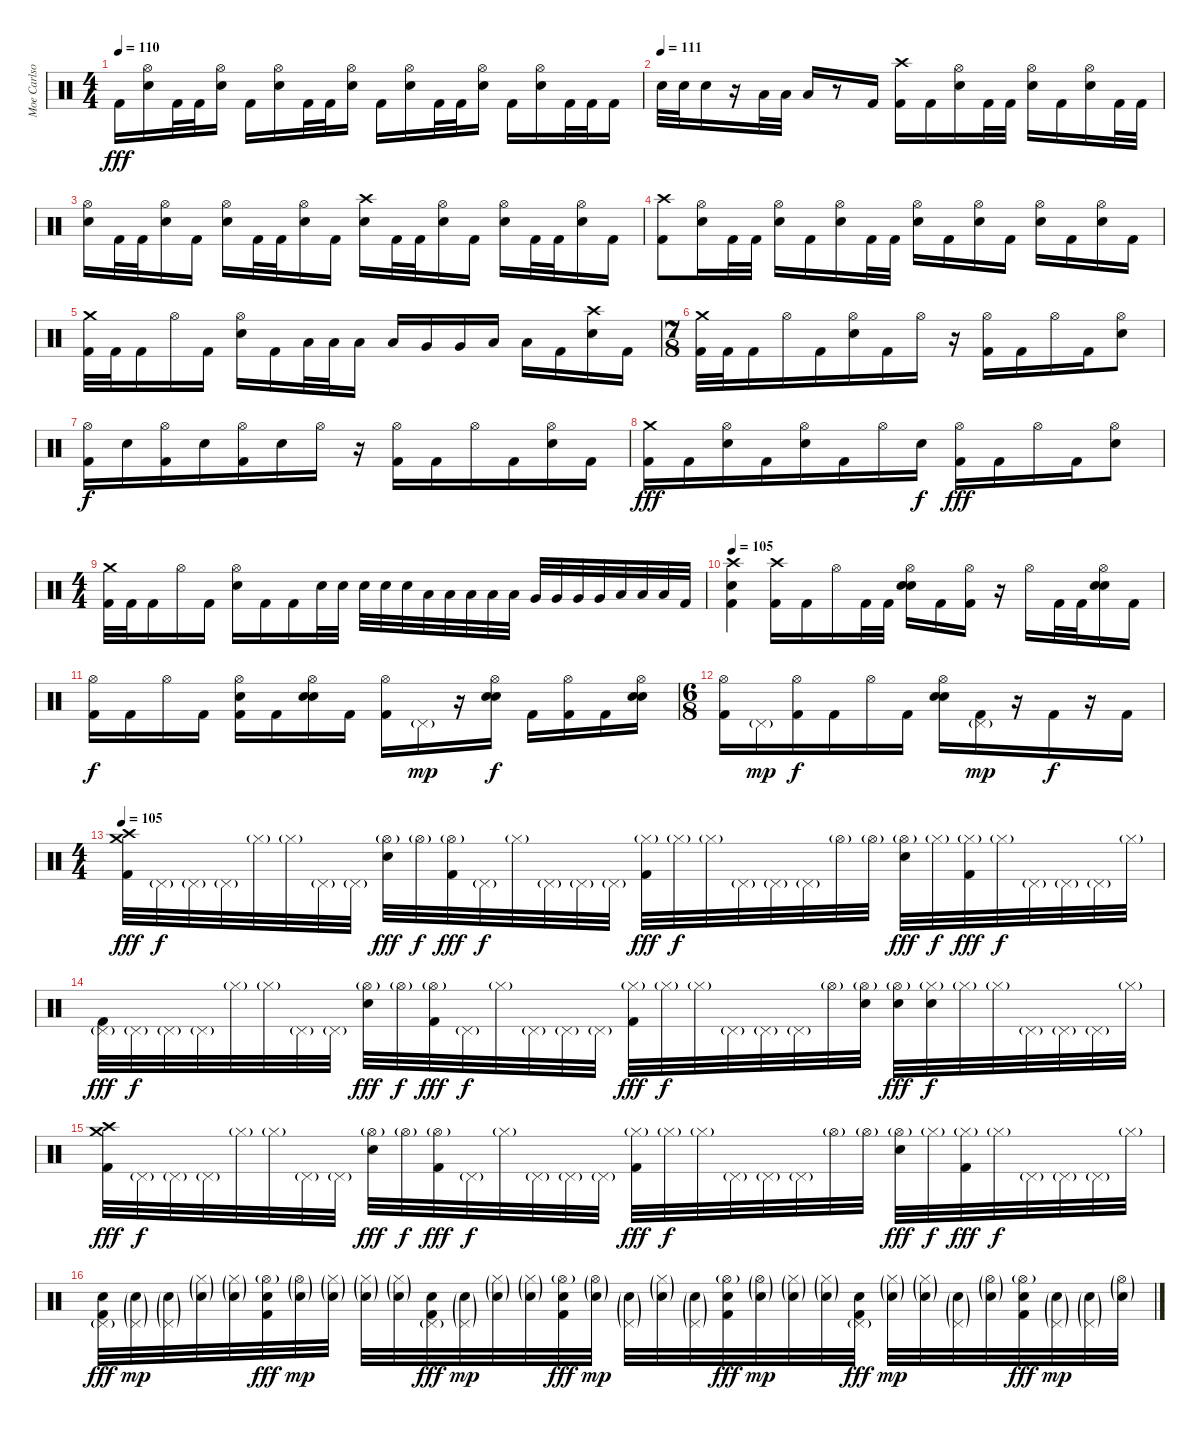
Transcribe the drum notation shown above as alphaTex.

\track ("Moe Carlson" "Moe Carlso") {instrument percussion}
\staff {score}
\articulation defaults
\ts (4 4)
\tempo 110
\clef neutral
\ks c "Kick (hit) 2".16{dy fff}
("Hi-Hat (open)" "Electric Snare (hit)").16 "Kick (hit) 2".32 "Kick (hit) 2".32 ("Hi-Hat (open)" "Electric Snare (hit)").16 "Kick (hit) 2".16 ("Hi-Hat (open)" "Electric Snare (hit)").16 "Kick (hit) 2".32 "Kick (hit) 2".32 ("Hi-Hat (open)" "Electric Snare (hit)").16 "Kick (hit) 2".16 ("Hi-Hat (open)" "Electric Snare (hit)").16 "Kick (hit) 2".32 "Kick (hit) 2".32 ("Hi-Hat (open)" "Electric Snare (hit)").16 "Kick (hit) 2".16 ("Hi-Hat (open)" "Electric Snare (hit)").16 "Kick (hit) 2".32 "Kick (hit) 2".32 "Kick (hit) 2".16 |
\tempo (111)
"Electric Snare (hit)".32 "Electric Snare (hit)".32 "Electric Snare (hit)".16 r.16 "Low Tom (hit)".32 "Low Tom (hit)".32 "Low Tom (hit)".16 r.8 "Kick (hit) 2".16 ("Crash high (hit)" "Kick (hit) 2").16 "Kick (hit) 2".16 ("Hi-Hat (open)" "Electric Snare (hit)").16 "Kick (hit) 2".32 "Kick (hit) 2".32 ("Hi-Hat (open)" "Electric Snare (hit)").16 "Kick (hit) 2".16 ("Hi-Hat (open)" "Electric Snare (hit)").16 "Kick (hit) 2".32 "Kick (hit) 2".32 |
("Hi-Hat (open)" "Electric Snare (hit)").16 "Kick (hit) 2".32 "Kick (hit) 2".32 ("Hi-Hat (open)" "Electric Snare (hit)").16 "Kick (hit) 2".16 ("Hi-Hat (open)" "Electric Snare (hit)").16 "Kick (hit) 2".32 "Kick (hit) 2".32 ("Hi-Hat (open)" "Electric Snare (hit)").16 "Kick (hit) 2".16 ("Crash high (hit)" "Electric Snare (hit)").16 "Kick (hit) 2".32 "Kick (hit) 2".32 ("Hi-Hat (open)" "Electric Snare (hit)").16 "Kick (hit) 2".16 ("Hi-Hat (open)" "Electric Snare (hit)").16 "Kick (hit) 2".32 "Kick (hit) 2".32 ("Hi-Hat (open)" "Electric Snare (hit)").16 "Kick (hit) 2".16 |
("Crash high (hit)" "Kick (hit) 2").8 ("Hi-Hat (open)" "Electric Snare (hit)").16 "Kick (hit) 2".32 "Kick (hit) 2".32 ("Hi-Hat (open)" "Electric Snare (hit)").16 "Kick (hit) 2".16 ("Hi-Hat (open)" "Electric Snare (hit)").16 "Kick (hit) 2".32 "Kick (hit) 2".32 ("Hi-Hat (open)" "Electric Snare (hit)").16 "Kick (hit) 2".16 ("Hi-Hat (open)" "Electric Snare (hit)").16 "Kick (hit) 2".16 ("Hi-Hat (open)" "Electric Snare (hit)").16 "Kick (hit) 2".16 ("Hi-Hat (open)" "Electric Snare (hit)").16 "Kick (hit) 2".16 |
("Crash medium (hit)" "Kick (hit) 2").32 "Kick (hit) 2".32 "Kick (hit) 2".16 "Hi-Hat (open)".16 "Kick (hit) 2".16 ("Hi-Hat (open)" "Electric Snare (hit)").16 "Kick (hit) 2".16 "Low Tom (hit)".32 "Low Tom (hit)".32 "Low Tom (hit)".16 "Low Tom (hit)".16 "Very Low Tom (hit)".16 "Very Low Tom (hit)".16 "Low Floor Tom (hit)".16 "Low Floor Tom (hit)".16 "Kick (hit) 2".16 ("Crash high (hit)" "Electric Snare (hit)").16 "Kick (hit) 2".16 |
\ts (7 8)
("Crash medium (hit)" "Kick (hit) 2").32 "Kick (hit) 2".32 "Kick (hit) 2".16 "Hi-Hat (open)".16 "Kick (hit) 2".16 ("Hi-Hat (open)" "Electric Snare (hit)").16 "Kick (hit) 2".16 "Hi-Hat (open)".16 r.16 ("Hi-Hat (open)" "Kick (hit) 2").16 "Kick (hit) 2".16 "Hi-Hat (open)".16 "Kick (hit) 2".16 ("Hi-Hat (open)" "Electric Snare (hit)").8 |
("Hi-Hat (open)" "Kick (hit) 2").16{dy f} "Electric Snare (hit)".16 ("Hi-Hat (open)" "Kick (hit) 2").16 "Electric Snare (hit)".16 ("Hi-Hat (open)" "Kick (hit) 2").16 "Electric Snare (hit)".16 "Hi-Hat (open)".16 r.16 ("Hi-Hat (open)" "Kick (hit) 2").16 "Kick (hit) 2".16 "Hi-Hat (open)".16 "Kick (hit) 2".16 ("Hi-Hat (open)" "Electric Snare (hit)").16 "Kick (hit) 2".16 |
("Crash medium (hit)" "Kick (hit) 2").16{dy fff} "Kick (hit) 2".16 ("Hi-Hat (open)" "Electric Snare (hit)").16 "Kick (hit) 2".16 ("Hi-Hat (open)" "Electric Snare (hit)").16 "Kick (hit) 2".16 "Hi-Hat (open)".16 "Electric Snare (hit)".16{dy f} ("Hi-Hat (open)" "Kick (hit) 2").16{dy fff} "Kick (hit) 2".16 "Hi-Hat (open)".16 "Kick (hit) 2".16 ("Hi-Hat (open)" "Electric Snare (hit)").8 |
\ts (4 4)
("Crash medium (hit)" "Kick (hit) 2").32 "Kick (hit) 2".32 "Kick (hit) 2".16 "Hi-Hat (open)".16 "Kick (hit) 2".16 ("Hi-Hat (open)" "Electric Snare (hit)").16 "Kick (hit) 2".16 "Kick (hit) 2".16 "Electric Snare (hit)".32 "Electric Snare (hit)".32 "Electric Snare (hit)".32 "Electric Snare (hit)".32 "Electric Snare (hit)".32 "Low Tom (hit)".32 "Low Tom (hit)".32 "Low Tom (hit)".32 "Low Tom (hit)".32 "Low Tom (hit)".32 "Very Low Tom (hit)".32 "Very Low Tom (hit)".32 "Very Low Tom (hit)".32 "Very Low Tom (hit)".32 "Low Floor Tom (hit)".32 "Low Floor Tom (hit)".32 "Low Floor Tom (hit)".32 "Kick (hit) 2".32 |
\tempo 105
("Crash high (hit)" "Electric Snare (hit)" "Kick (hit) 2").4 ("Crash high (hit)" "Kick (hit) 2").16 "Kick (hit) 2".16 "Hi-Hat (open)".16 "Kick (hit) 2".32 "Kick (hit) 2".32 ("Hi-Hat (open)" "Electric Snare (hit)" "Snare (hit) 2").16 "Kick (hit) 2".16 ("Hi-Hat (open)" "Kick (hit) 2").16 r.16 "Hi-Hat (open)".16 "Kick (hit) 2".32 "Kick (hit) 2".32 ("Hi-Hat (open)" "Electric Snare (hit)" "Snare (hit) 2").16 "Kick (hit) 2".16 |
("Hi-Hat (open)" "Kick (hit) 2").16{dy f} "Kick (hit) 2".16 "Hi-Hat (open)".16 "Kick (hit) 2".16 ("Hi-Hat (open)" "Electric Snare (hit)" "Kick (hit) 2").16 "Kick (hit) 2".16 ("Hi-Hat (open)" "Electric Snare (hit)" "Snare (hit) 2").16 "Kick (hit) 2".16 ("Hi-Hat (open)" "Kick (hit) 2").16 "Pedal Hi-Hat (hit)"{g}.16{dy mp} r.16 ("Hi-Hat (open)" "Electric Snare (hit)" "Snare (hit) 2").16{dy f} "Kick (hit) 2".16 ("Hi-Hat (open)" "Kick (hit) 2").16 "Kick (hit) 2".16 ("Hi-Hat (open)" "Electric Snare (hit)" "Snare (hit) 2").16 |
\ts (6 8)
("Hi-Hat (open)" "Kick (hit) 2").16 "Pedal Hi-Hat (hit)"{g}.16{dy mp} ("Hi-Hat (open)" "Kick (hit) 2").16{dy f} "Kick (hit) 2".16 "Hi-Hat (open)".16 "Kick (hit) 2".16 ("Hi-Hat (open)" "Electric Snare (hit)" "Snare (hit) 2").16 ("Pedal Hi-Hat (hit)"{g} "Kick (hit) 2").16{dy mp} r.16 "Kick (hit) 2".16{dy f} r.16 "Kick (hit) 2".16 |
\ts (4 4)
\tempo 105
("Crash high (hit)" "Crash medium (hit)" "Kick (hit) 2").32{dy fff} "Pedal Hi-Hat (hit)"{g}.32{dy f} "Pedal Hi-Hat (hit)"{g}.32 "Pedal Hi-Hat (hit)"{g}.32 "Hi-Hat (closed)"{g}.32 "Hi-Hat (closed)"{g}.32 "Pedal Hi-Hat (hit)"{g}.32 "Pedal Hi-Hat (hit)"{g}.32 ("Hi-Hat (open)"{g} "Electric Snare (hit)").32{dy fff} "Hi-Hat (open)"{g}.32{dy f} ("Hi-Hat (open)"{g} "Kick (hit) 2").32{dy fff} "Pedal Hi-Hat (hit)"{g}.32{dy f} "Hi-Hat (closed)"{g}.32 "Pedal Hi-Hat (hit)"{g}.32 "Pedal Hi-Hat (hit)"{g}.32 "Pedal Hi-Hat (hit)"{g}.32 ("Hi-Hat (closed)"{g} "Kick (hit) 2").32{dy fff} "Hi-Hat (closed)"{g}.32{dy f} "Hi-Hat (closed)"{g}.32 "Pedal Hi-Hat (hit)"{g}.32 "Pedal Hi-Hat (hit)"{g}.32 "Pedal Hi-Hat (hit)"{g}.32 "Hi-Hat (open)"{g}.32 "Hi-Hat (open)"{g}.32 ("Hi-Hat (open)"{g} "Electric Snare (hit)").32{dy fff} "Hi-Hat (closed)"{g}.32{dy f} ("Hi-Hat (closed)"{g} "Kick (hit) 2").32{dy fff} "Hi-Hat (closed)"{g}.32{dy f} "Pedal Hi-Hat (hit)"{g}.32 "Pedal Hi-Hat (hit)"{g}.32 "Pedal Hi-Hat (hit)"{g}.32 "Hi-Hat (closed)"{g}.32 |
("Pedal Hi-Hat (hit)"{g} "Kick (hit) 2").32{dy fff} "Pedal Hi-Hat (hit)"{g}.32{dy f} "Pedal Hi-Hat (hit)"{g}.32 "Pedal Hi-Hat (hit)"{g}.32 "Hi-Hat (closed)"{g}.32 "Hi-Hat (closed)"{g}.32 "Pedal Hi-Hat (hit)"{g}.32 "Pedal Hi-Hat (hit)"{g}.32 ("Hi-Hat (open)"{g} "Electric Snare (hit)").32{dy fff} "Hi-Hat (open)"{g}.32{dy f} ("Hi-Hat (open)"{g} "Kick (hit) 2").32{dy fff} "Pedal Hi-Hat (hit)"{g}.32{dy f} "Hi-Hat (closed)"{g}.32 "Pedal Hi-Hat (hit)"{g}.32 "Pedal Hi-Hat (hit)"{g}.32 "Pedal Hi-Hat (hit)"{g}.32 ("Hi-Hat (closed)"{g} "Kick (hit) 2").32{dy fff} "Hi-Hat (closed)"{g}.32{dy f} "Hi-Hat (closed)"{g}.32 "Pedal Hi-Hat (hit)"{g}.32 "Pedal Hi-Hat (hit)"{g}.32 "Pedal Hi-Hat (hit)"{g}.32 "Hi-Hat (open)"{g}.32 ("Hi-Hat (open)"{g} "Electric Snare (hit)").32 ("Hi-Hat (open)"{g} "Electric Snare (hit)").32{dy fff} ("Hi-Hat (closed)"{g} "Electric Snare (hit)").32{dy f} "Hi-Hat (closed)"{g}.32 "Hi-Hat (closed)"{g}.32 "Pedal Hi-Hat (hit)"{g}.32 "Pedal Hi-Hat (hit)"{g}.32 "Pedal Hi-Hat (hit)"{g}.32 "Hi-Hat (closed)"{g}.32 |
("Crash high (hit)" "Crash medium (hit)" "Kick (hit) 2").32{dy fff} "Pedal Hi-Hat (hit)"{g}.32{dy f} "Pedal Hi-Hat (hit)"{g}.32 "Pedal Hi-Hat (hit)"{g}.32 "Hi-Hat (closed)"{g}.32 "Hi-Hat (closed)"{g}.32 "Pedal Hi-Hat (hit)"{g}.32 "Pedal Hi-Hat (hit)"{g}.32 ("Hi-Hat (open)"{g} "Electric Snare (hit)").32{dy fff} "Hi-Hat (open)"{g}.32{dy f} ("Hi-Hat (open)"{g} "Kick (hit) 2").32{dy fff} "Pedal Hi-Hat (hit)"{g}.32{dy f} "Hi-Hat (closed)"{g}.32 "Pedal Hi-Hat (hit)"{g}.32 "Pedal Hi-Hat (hit)"{g}.32 "Pedal Hi-Hat (hit)"{g}.32 ("Hi-Hat (closed)"{g} "Kick (hit) 2").32{dy fff} "Hi-Hat (closed)"{g}.32{dy f} "Hi-Hat (closed)"{g}.32 "Pedal Hi-Hat (hit)"{g}.32 "Pedal Hi-Hat (hit)"{g}.32 "Pedal Hi-Hat (hit)"{g}.32 "Hi-Hat (open)"{g}.32 "Hi-Hat (open)"{g}.32 ("Hi-Hat (open)"{g} "Electric Snare (hit)").32{dy fff} "Hi-Hat (closed)"{g}.32{dy f} ("Hi-Hat (closed)"{g} "Kick (hit) 2").32{dy fff} "Hi-Hat (closed)"{g}.32{dy f} "Pedal Hi-Hat (hit)"{g}.32 "Pedal Hi-Hat (hit)"{g}.32 "Pedal Hi-Hat (hit)"{g}.32 "Hi-Hat (closed)"{g}.32 |
("Pedal Hi-Hat (hit)"{g} "Electric Snare (hit)" "Kick (hit) 2").32{dy fff} ("Pedal Hi-Hat (hit)"{g} "Electric Snare (hit)"{g}).32{dy mp} ("Pedal Hi-Hat (hit)"{g} "Electric Snare (hit)"{g}).32 ("Hi-Hat (closed)"{g} "Electric Snare (hit)"{g}).32 ("Hi-Hat (closed)"{g} "Electric Snare (hit)"{g}).32 ("Hi-Hat (open)"{g} "Electric Snare (hit)" "Kick (hit) 2").32{dy fff} ("Hi-Hat (open)"{g} "Electric Snare (hit)"{g}).32{dy mp} ("Hi-Hat (closed)"{g} "Electric Snare (hit)"{g}).32 ("Hi-Hat (closed)"{g} "Electric Snare (hit)"{g}).32 ("Hi-Hat (closed)"{g} "Electric Snare (hit)"{g}).32 ("Pedal Hi-Hat (hit)"{g} "Electric Snare (hit)" "Kick (hit) 2").32{dy fff} ("Pedal Hi-Hat (hit)"{g} "Electric Snare (hit)"{g}).32{dy mp} ("Hi-Hat (closed)"{g} "Electric Snare (hit)"{g}).32 ("Hi-Hat (closed)"{g} "Electric Snare (hit)"{g}).32 ("Hi-Hat (open)"{g} "Electric Snare (hit)" "Kick (hit) 2").32{dy fff} ("Hi-Hat (open)"{g} "Electric Snare (hit)"{g}).32{dy mp} ("Pedal Hi-Hat (hit)"{g} "Electric Snare (hit)"{g}).32 ("Hi-Hat (closed)"{g} "Electric Snare (hit)"{g}).32 ("Pedal Hi-Hat (hit)"{g} "Electric Snare (hit)"{g}).32 ("Hi-Hat (open)"{g} "Electric Snare (hit)" "Kick (hit) 2").32{dy fff} ("Hi-Hat (open)"{g} "Electric Snare (hit)"{g}).32{dy mp} ("Hi-Hat (closed)"{g} "Electric Snare (hit)"{g}).32 ("Hi-Hat (closed)"{g} "Electric Snare (hit)"{g}).32 ("Pedal Hi-Hat (hit)"{g} "Electric Snare (hit)" "Kick (hit) 2").32{dy fff} ("Hi-Hat (closed)"{g} "Electric Snare (hit)"{g}).32{dy mp} ("Hi-Hat (closed)"{g} "Electric Snare (hit)"{g}).32 ("Pedal Hi-Hat (hit)"{g} "Electric Snare (hit)"{g}).32 ("Hi-Hat (open)"{g} "Electric Snare (hit)"{g}).32 ("Hi-Hat (open)"{g} "Electric Snare (hit)" "Kick (hit) 2").32{dy fff} ("Pedal Hi-Hat (hit)"{g} "Electric Snare (hit)"{g}).32{dy mp} ("Pedal Hi-Hat (hit)"{g} "Electric Snare (hit)"{g}).32 ("Hi-Hat (open)"{g} "Electric Snare (hit)"{g}).32
